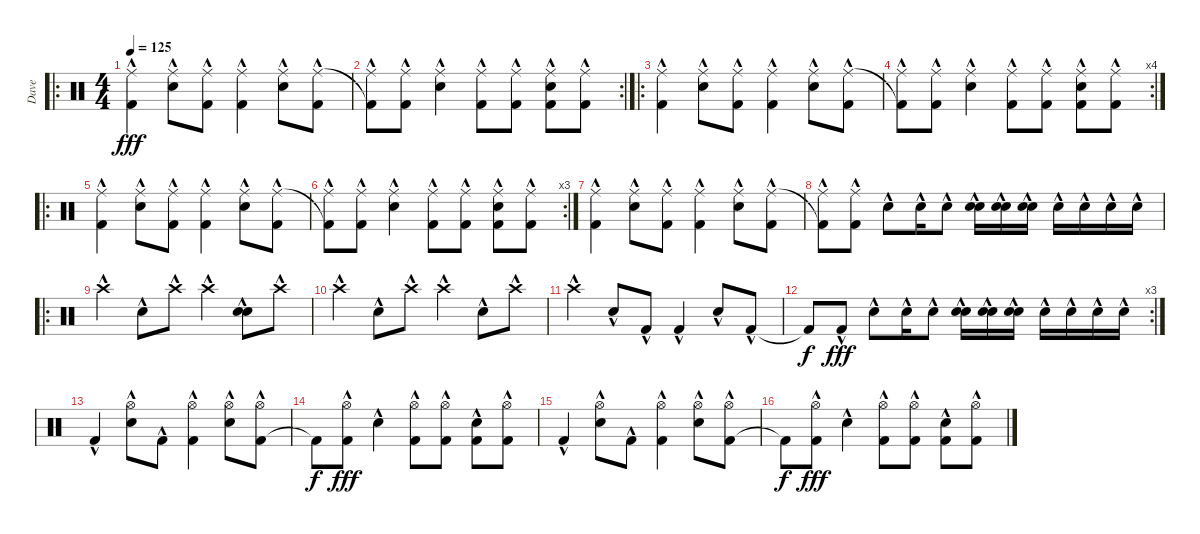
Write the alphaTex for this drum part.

\track ("Dave" "Dave") {instrument percussion}
\staff {score}
\articulation defaults
\ro
\ts (4 4)
\tempo 125
\clef neutral
\ks c
("Kick (hit) 2"{hac} "Ride (middle)"{hac}).4{dy fff} ("Electric Snare (hit)"{hac} "Ride (middle)"{hac}).8 ("Kick (hit) 2"{hac} "Ride (middle)"{hac}).8 ("Kick (hit) 2"{hac} "Ride (middle)"{hac}).4 ("Electric Snare (hit)"{hac} "Ride (middle)"{hac}).8 ("Kick (hit) 2"{hac} "Ride (middle)"{hac}).8 |
\rc 2
("Ride (middle)"{hac} "Kick (hit) 2"{t}).8 ("Kick (hit) 2"{hac} "Ride (middle)"{hac}).8 ("Electric Snare (hit)"{hac} "Ride (middle)"{hac}).4 ("Ride (middle)"{hac} "Kick (hit) 2"{hac}).8 ("Kick (hit) 2"{hac} "Ride (middle)"{hac}).8 ("Kick (hit) 2"{hac} "Electric Snare (hit)"{hac} "Ride (middle)"{hac}).8 ("Kick (hit) 2"{hac} "Ride (middle)"{hac}).8 |
\ro
("Kick (hit) 2"{hac} "Ride (middle)"{hac}).4 ("Electric Snare (hit)"{hac} "Ride (middle)"{hac}).8 ("Kick (hit) 2"{hac} "Ride (middle)"{hac}).8 ("Kick (hit) 2"{hac} "Ride (middle)"{hac}).4 ("Electric Snare (hit)"{hac} "Ride (middle)"{hac}).8 ("Kick (hit) 2"{hac} "Ride (middle)"{hac}).8 |
\rc 4
("Ride (middle)"{hac} "Kick (hit) 2"{t}).8 ("Kick (hit) 2"{hac} "Ride (middle)"{hac}).8 ("Electric Snare (hit)"{hac} "Ride (middle)"{hac}).4 ("Ride (middle)"{hac} "Kick (hit) 2"{hac}).8 ("Kick (hit) 2"{hac} "Ride (middle)"{hac}).8 ("Kick (hit) 2"{hac} "Electric Snare (hit)"{hac} "Ride (middle)"{hac}).8 ("Kick (hit) 2"{hac} "Ride (middle)"{hac}).8 |
\ro
("Kick (hit) 2"{hac} "Ride (middle)"{hac}).4 ("Electric Snare (hit)"{hac} "Ride (middle)"{hac}).8 ("Kick (hit) 2"{hac} "Ride (middle)"{hac}).8 ("Kick (hit) 2"{hac} "Ride (middle)"{hac}).4 ("Electric Snare (hit)"{hac} "Ride (middle)"{hac}).8 ("Kick (hit) 2"{hac} "Ride (middle)"{hac}).8 |
\rc 3
("Ride (middle)"{hac} "Kick (hit) 2"{t}).8 ("Kick (hit) 2"{hac} "Ride (middle)"{hac}).8 ("Electric Snare (hit)"{hac} "Ride (middle)"{hac}).4 ("Ride (middle)"{hac} "Kick (hit) 2"{hac}).8 ("Kick (hit) 2"{hac} "Ride (middle)"{hac}).8 ("Kick (hit) 2"{hac} "Electric Snare (hit)"{hac} "Ride (middle)"{hac}).8 ("Kick (hit) 2"{hac} "Ride (middle)"{hac}).8 |
("Kick (hit) 2"{hac} "Ride (middle)"{hac}).4 ("Electric Snare (hit)"{hac} "Ride (middle)"{hac}).8 ("Kick (hit) 2"{hac} "Ride (middle)"{hac}).8 ("Kick (hit) 2"{hac} "Ride (middle)"{hac}).4 ("Electric Snare (hit)"{hac} "Ride (middle)"{hac}).8 ("Kick (hit) 2"{hac} "Ride (middle)"{hac}).8 |
("Ride (middle)"{hac} "Kick (hit) 2"{t}).8 ("Kick (hit) 2"{hac} "Ride (middle)"{hac}).8 "Electric Snare (hit)"{hac}.8 "Electric Snare (hit)"{hac}.16 "Electric Snare (hit)"{hac}.8 ("Electric Snare (hit)"{hac} "Electric Snare (hit)"{hac}).16 ("Electric Snare (hit)"{hac} "Electric Snare (hit)"{hac}).16 ("Electric Snare (hit)"{hac} "Electric Snare (hit)"{hac}).16 "Electric Snare (hit)"{hac}.16 "Electric Snare (hit)"{hac}.16 "Electric Snare (hit)"{hac}.16 "Electric Snare (hit)"{hac}.16 |
\ro "Crash high (hit)"{hac}.4 "Electric Snare (hit)"{hac}.8 "Crash high (hit)"{hac}.8 "Crash high (hit)"{hac}.4
("Electric Snare (hit)"{hac} "Electric Snare (hit)"{hac}).8 "Crash high (hit)"{hac}.8 |
"Crash high (hit)"{hac}.4 "Electric Snare (hit)"{hac}.8 "Crash high (hit)"{hac}.8 "Crash high (hit)"{hac}.4 "Electric Snare (hit)"{hac}.8 "Crash high (hit)"{hac}.8 |
"Crash high (hit)"{hac}.4 "Electric Snare (hit)"{hac}.8 "Kick (hit) 2"{hac}.8 "Kick (hit) 2"{hac}.4 "Electric Snare (hit)"{hac}.8 "Kick (hit) 2"{hac}.8 |
\rc 3 "Kick (hit) 2"{t}.8{dy f} "Kick (hit) 2"{hac}.8{dy fff} "Electric Snare (hit)"{hac}.8 "Electric Snare (hit)"{hac}.16 "Electric Snare (hit)"{hac}.8
("Electric Snare (hit)"{hac} "Electric Snare (hit)"{hac}).16 ("Electric Snare (hit)"{hac} "Electric Snare (hit)"{hac}).16 ("Electric Snare (hit)"{hac} "Electric Snare (hit)"{hac}).16 "Electric Snare (hit)"{hac}.16 "Electric Snare (hit)"{hac}.16 "Electric Snare (hit)"{hac}.16 "Electric Snare (hit)"{hac}.16 |
"Kick (hit) 2"{hac}.4 ("Electric Snare (hit)"{hac} "Hi-Hat (open)"{hac}).8 "Kick (hit) 2"{hac}.8 ("Kick (hit) 2"{hac} "Hi-Hat (open)"{hac}).4 ("Electric Snare (hit)"{hac} "Hi-Hat (open)"{hac}).8 ("Kick (hit) 2"{hac} "Hi-Hat (open)"{hac}).8 |
"Kick (hit) 2"{t}.8{dy f} ("Kick (hit) 2"{hac} "Hi-Hat (open)"{hac}).8{dy fff} "Electric Snare (hit)"{hac}.4 ("Hi-Hat (open)"{hac} "Kick (hit) 2"{hac}).8 ("Kick (hit) 2"{hac} "Hi-Hat (open)"{hac}).8 ("Kick (hit) 2"{hac} "Electric Snare (hit)"{hac}).8 ("Kick (hit) 2"{hac} "Hi-Hat (open)"{hac}).8 |
"Kick (hit) 2"{hac}.4 ("Electric Snare (hit)"{hac} "Hi-Hat (open)"{hac}).8 "Kick (hit) 2"{hac}.8 ("Kick (hit) 2"{hac} "Hi-Hat (open)"{hac}).4 ("Electric Snare (hit)"{hac} "Hi-Hat (open)"{hac}).8 ("Kick (hit) 2"{hac} "Hi-Hat (open)"{hac}).8 |
"Kick (hit) 2"{t}.8{dy f} ("Kick (hit) 2"{hac} "Hi-Hat (open)"{hac}).8{dy fff} "Electric Snare (hit)"{hac}.4 ("Hi-Hat (open)"{hac} "Kick (hit) 2"{hac}).8 ("Kick (hit) 2"{hac} "Hi-Hat (open)"{hac}).8 ("Kick (hit) 2"{hac} "Electric Snare (hit)"{hac}).8 ("Kick (hit) 2"{hac} "Hi-Hat (open)"{hac}).8
